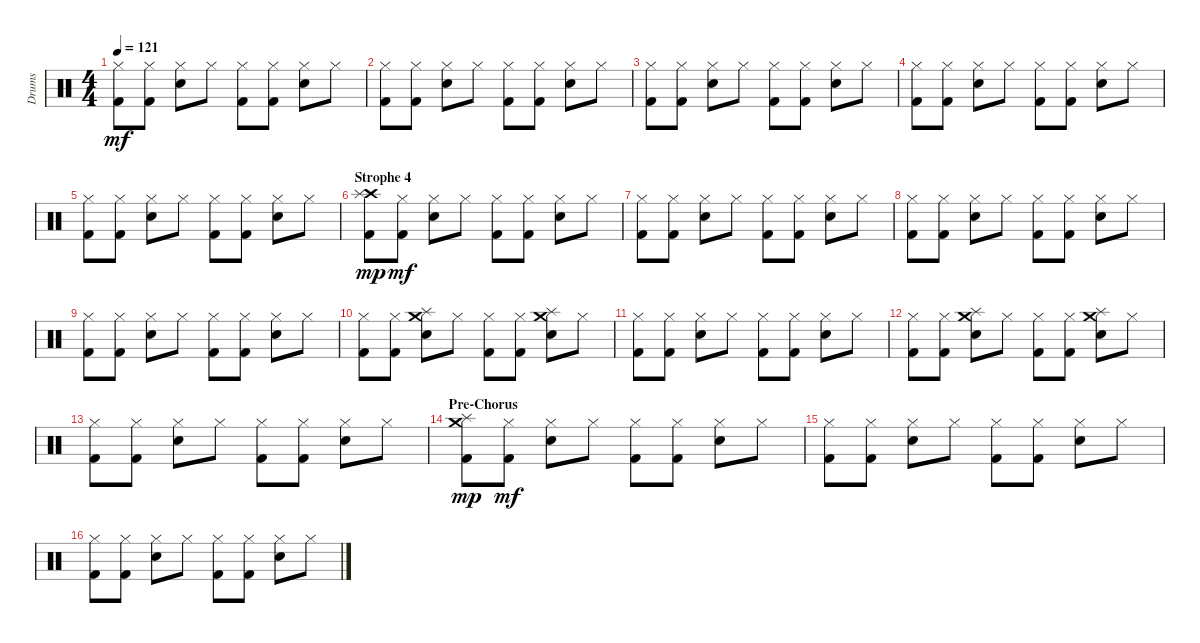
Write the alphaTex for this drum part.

\track ("Drums" "Drums") {instrument percussion}
\staff {score}
\articulation defaults
\ts (4 4)
\tempo 121
\clef neutral
\ks c
("Hi-Hat (closed)" "Kick (hit) 2").8{dy mf} ("Hi-Hat (closed)" "Kick (hit) 2").8 ("Hi-Hat (closed)" "Electric Snare (hit)").8 "Hi-Hat (closed)".8 ("Hi-Hat (closed)" "Kick (hit) 2").8 ("Hi-Hat (closed)" "Kick (hit) 2").8 ("Hi-Hat (closed)" "Electric Snare (hit)").8 "Hi-Hat (closed)".8 |
("Hi-Hat (closed)" "Kick (hit) 2").8 ("Hi-Hat (closed)" "Kick (hit) 2").8 ("Hi-Hat (closed)" "Electric Snare (hit)").8 "Hi-Hat (closed)".8 ("Hi-Hat (closed)" "Kick (hit) 2").8 ("Hi-Hat (closed)" "Kick (hit) 2").8 ("Hi-Hat (closed)" "Electric Snare (hit)").8 "Hi-Hat (closed)".8 |
("Hi-Hat (closed)" "Kick (hit) 2").8 ("Hi-Hat (closed)" "Kick (hit) 2").8 ("Hi-Hat (closed)" "Electric Snare (hit)").8 "Hi-Hat (closed)".8 ("Hi-Hat (closed)" "Kick (hit) 2").8 ("Hi-Hat (closed)" "Kick (hit) 2").8 ("Hi-Hat (closed)" "Electric Snare (hit)").8 "Hi-Hat (closed)".8 |
("Hi-Hat (closed)" "Kick (hit) 2").8 ("Hi-Hat (closed)" "Kick (hit) 2").8 ("Hi-Hat (closed)" "Electric Snare (hit)").8 "Hi-Hat (closed)".8 ("Hi-Hat (closed)" "Kick (hit) 2").8 ("Hi-Hat (closed)" "Kick (hit) 2").8 ("Hi-Hat (closed)" "Electric Snare (hit)").8 "Hi-Hat (closed)".8 |
("Hi-Hat (closed)" "Kick (hit) 2").8 ("Hi-Hat (closed)" "Kick (hit) 2").8 ("Hi-Hat (closed)" "Electric Snare (hit)").8 "Hi-Hat (closed)".8 ("Hi-Hat (closed)" "Kick (hit) 2").8 ("Hi-Hat (closed)" "Kick (hit) 2").8 ("Hi-Hat (closed)" "Electric Snare (hit)").8 "Hi-Hat (closed)".8 |
\section ("" "Strophe 4")
("Crash high (hit)" "Splash (hit)" "Kick (hit) 2").8{dy mp} ("Hi-Hat (closed)" "Kick (hit) 2").8{dy mf} ("Hi-Hat (closed)" "Electric Snare (hit)").8 "Hi-Hat (closed)".8 ("Hi-Hat (closed)" "Kick (hit) 2").8 ("Hi-Hat (closed)" "Kick (hit) 2").8 ("Hi-Hat (closed)" "Electric Snare (hit)").8 "Hi-Hat (closed)".8 |
("Hi-Hat (closed)" "Kick (hit) 2").8 ("Hi-Hat (closed)" "Kick (hit) 2").8 ("Hi-Hat (closed)" "Electric Snare (hit)").8 "Hi-Hat (closed)".8 ("Hi-Hat (closed)" "Kick (hit) 2").8 ("Hi-Hat (closed)" "Kick (hit) 2").8 ("Hi-Hat (closed)" "Electric Snare (hit)").8 "Hi-Hat (closed)".8 |
("Hi-Hat (closed)" "Kick (hit) 2").8 ("Hi-Hat (closed)" "Kick (hit) 2").8 ("Hi-Hat (closed)" "Electric Snare (hit)").8 "Hi-Hat (closed)".8 ("Hi-Hat (closed)" "Kick (hit) 2").8 ("Hi-Hat (closed)" "Kick (hit) 2").8 ("Hi-Hat (closed)" "Electric Snare (hit)").8 "Hi-Hat (closed)".8 |
("Hi-Hat (closed)" "Kick (hit) 2").8 ("Hi-Hat (closed)" "Kick (hit) 2").8 ("Hi-Hat (closed)" "Electric Snare (hit)").8 "Hi-Hat (closed)".8 ("Hi-Hat (closed)" "Kick (hit) 2").8 ("Hi-Hat (closed)" "Kick (hit) 2").8 ("Hi-Hat (closed)" "Electric Snare (hit)").8 "Hi-Hat (closed)".8 |
("Hi-Hat (closed)" "Kick (hit) 2").8 ("Hi-Hat (closed)" "Kick (hit) 2").8 ("Crash medium (hit)" "Splash (hit)" "Electric Snare (hit)").8 "Hi-Hat (closed)".8 ("Hi-Hat (closed)" "Kick (hit) 2").8 ("Hi-Hat (closed)" "Kick (hit) 2").8 ("Crash medium (hit)" "Splash (hit)" "Electric Snare (hit)").8 "Hi-Hat (closed)".8 |
("Hi-Hat (closed)" "Kick (hit) 2").8 ("Hi-Hat (closed)" "Kick (hit) 2").8 ("Hi-Hat (closed)" "Electric Snare (hit)").8 "Hi-Hat (closed)".8 ("Hi-Hat (closed)" "Kick (hit) 2").8 ("Hi-Hat (closed)" "Kick (hit) 2").8 ("Hi-Hat (closed)" "Electric Snare (hit)").8 "Hi-Hat (closed)".8 |
("Hi-Hat (closed)" "Kick (hit) 2").8 ("Hi-Hat (closed)" "Kick (hit) 2").8 ("Crash medium (hit)" "Splash (hit)" "Electric Snare (hit)").8 "Hi-Hat (closed)".8 ("Hi-Hat (closed)" "Kick (hit) 2").8 ("Hi-Hat (closed)" "Kick (hit) 2").8 ("Crash medium (hit)" "Splash (hit)" "Electric Snare (hit)").8 "Hi-Hat (closed)".8 |
("Hi-Hat (closed)" "Kick (hit) 2").8 ("Hi-Hat (closed)" "Kick (hit) 2").8 ("Hi-Hat (closed)" "Electric Snare (hit)").8 "Hi-Hat (closed)".8 ("Hi-Hat (closed)" "Kick (hit) 2").8 ("Hi-Hat (closed)" "Kick (hit) 2").8 ("Hi-Hat (closed)" "Electric Snare (hit)").8 "Hi-Hat (closed)".8 |
\section ("" "Pre-Chorus")
("Crash medium (hit)" "Splash (hit)" "Kick (hit) 2").8{dy mp} ("Hi-Hat (closed)" "Kick (hit) 2").8{dy mf} ("Hi-Hat (closed)" "Electric Snare (hit)").8 "Hi-Hat (closed)".8 ("Hi-Hat (closed)" "Kick (hit) 2").8 ("Hi-Hat (closed)" "Kick (hit) 2").8 ("Hi-Hat (closed)" "Electric Snare (hit)").8 "Hi-Hat (closed)".8 |
("Hi-Hat (closed)" "Kick (hit) 2").8 ("Hi-Hat (closed)" "Kick (hit) 2").8 ("Hi-Hat (closed)" "Electric Snare (hit)").8 "Hi-Hat (closed)".8 ("Hi-Hat (closed)" "Kick (hit) 2").8 ("Hi-Hat (closed)" "Kick (hit) 2").8 ("Hi-Hat (closed)" "Electric Snare (hit)").8 "Hi-Hat (closed)".8 |
("Hi-Hat (closed)" "Kick (hit) 2").8 ("Hi-Hat (closed)" "Kick (hit) 2").8 ("Hi-Hat (closed)" "Electric Snare (hit)").8 "Hi-Hat (closed)".8 ("Hi-Hat (closed)" "Kick (hit) 2").8 ("Hi-Hat (closed)" "Kick (hit) 2").8 ("Hi-Hat (closed)" "Electric Snare (hit)").8 "Hi-Hat (closed)".8
